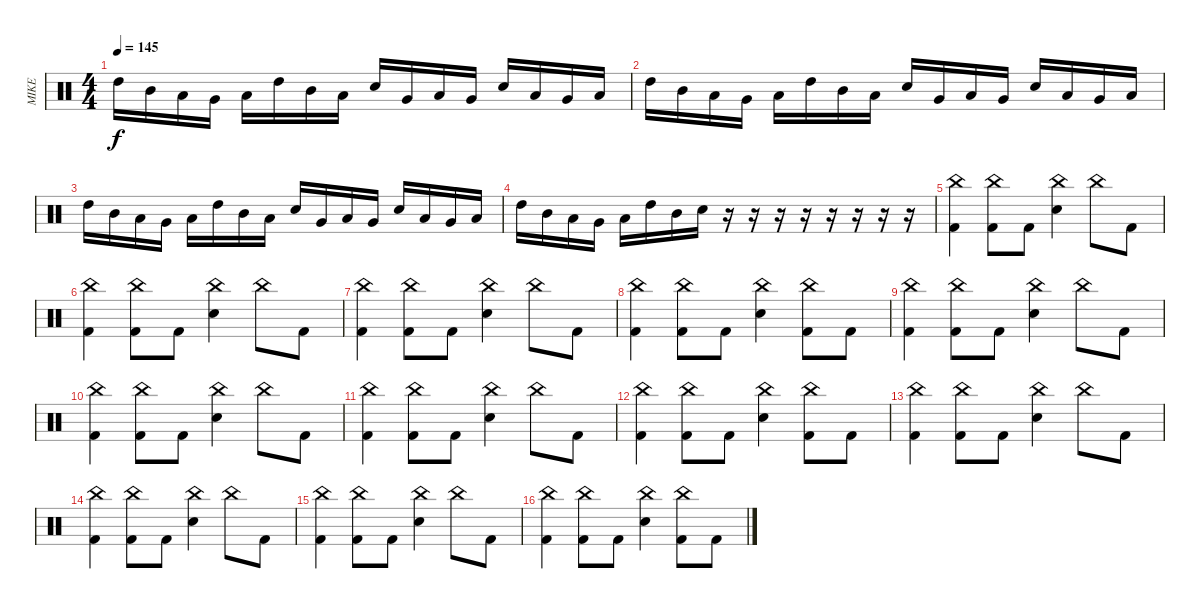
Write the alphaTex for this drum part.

\track ("MIKE" "MIKE") {instrument percussion}
\staff {score}
\articulation defaults
\ts (4 4)
\tempo 145
\clef neutral
\ks c "High Tom (hit)".16{dy f} "Mid Tom (hit)".16 "Low Tom (hit)".16 "Very Low Tom (hit)".16 "Low Floor Tom (hit)".16 "High Tom (hit)".16 "Mid Tom (hit)".16 "Low Tom (hit)".16 "Electric Snare (hit)".16 "Very Low Tom (hit)".16 "Low Tom (hit)".16 "Very Low Tom (hit)".16 "Electric Snare (hit)".16 "Low Tom (hit)".16 "Very Low Tom (hit)".16 "Low Floor Tom (hit)".16
|
"High Tom (hit)".16 "Mid Tom (hit)".16 "Low Tom (hit)".16 "Very Low Tom (hit)".16 "Low Floor Tom (hit)".16 "High Tom (hit)".16 "Mid Tom (hit)".16 "Low Tom (hit)".16 "Electric Snare (hit)".16 "Very Low Tom (hit)".16 "Low Tom (hit)".16 "Very Low Tom (hit)".16 "Electric Snare (hit)".16 "Low Tom (hit)".16 "Very Low Tom (hit)".16 "Low Floor Tom (hit)".16 |
"High Tom (hit)".16 "Mid Tom (hit)".16 "Low Tom (hit)".16 "Very Low Tom (hit)".16 "Low Floor Tom (hit)".16 "High Tom (hit)".16 "Mid Tom (hit)".16 "Low Tom (hit)".16 "Electric Snare (hit)".16 "Very Low Tom (hit)".16 "Low Tom (hit)".16 "Very Low Tom (hit)".16 "Electric Snare (hit)".16 "Low Tom (hit)".16 "Very Low Tom (hit)".16 "Low Floor Tom (hit)".16 |
"High Tom (hit)".16 "Mid Tom (hit)".16 "Low Tom (hit)".16 "Very Low Tom (hit)".16 "Low Floor Tom (hit)".16 "High Tom (hit)".16 "Mid Tom (hit)".16 "Electric Snare (hit)".16 r.16 r.16 r.16 r.16 r.16 r.16 r.16 r.16 |
("China (hit)" "Kick (hit) 2").4 ("China (hit)" "Kick (hit) 2").8 "Kick (hit) 2".8 ("China (hit)" "Electric Snare (hit)").4 "China (hit)".8 "Kick (hit) 2".8 |
("China (hit)" "Kick (hit) 2").4 ("China (hit)" "Kick (hit) 2").8 "Kick (hit) 2".8 ("China (hit)" "Electric Snare (hit)").4 "China (hit)".8 "Kick (hit) 2".8 |
("China (hit)" "Kick (hit) 2").4 ("China (hit)" "Kick (hit) 2").8 "Kick (hit) 2".8 ("China (hit)" "Electric Snare (hit)").4 "China (hit)".8 "Kick (hit) 2".8 |
("China (hit)" "Kick (hit) 2").4 ("China (hit)" "Kick (hit) 2").8 "Kick (hit) 2".8 ("China (hit)" "Electric Snare (hit)").4 ("Kick (hit) 2" "China (hit)").8 "Kick (hit) 2".8 |
("China (hit)" "Kick (hit) 2").4 ("China (hit)" "Kick (hit) 2").8 "Kick (hit) 2".8 ("China (hit)" "Electric Snare (hit)").4 "China (hit)".8 "Kick (hit) 2".8 |
("China (hit)" "Kick (hit) 2").4 ("China (hit)" "Kick (hit) 2").8 "Kick (hit) 2".8 ("China (hit)" "Electric Snare (hit)").4 "China (hit)".8 "Kick (hit) 2".8 |
("China (hit)" "Kick (hit) 2").4 ("China (hit)" "Kick (hit) 2").8 "Kick (hit) 2".8 ("China (hit)" "Electric Snare (hit)").4 "China (hit)".8 "Kick (hit) 2".8 |
("China (hit)" "Kick (hit) 2").4 ("China (hit)" "Kick (hit) 2").8 "Kick (hit) 2".8 ("China (hit)" "Electric Snare (hit)").4 ("Kick (hit) 2" "China (hit)").8 "Kick (hit) 2".8 |
("China (hit)" "Kick (hit) 2").4 ("China (hit)" "Kick (hit) 2").8 "Kick (hit) 2".8 ("China (hit)" "Electric Snare (hit)").4 "China (hit)".8 "Kick (hit) 2".8 |
("China (hit)" "Kick (hit) 2").4 ("China (hit)" "Kick (hit) 2").8 "Kick (hit) 2".8 ("China (hit)" "Electric Snare (hit)").4 "China (hit)".8 "Kick (hit) 2".8 |
("China (hit)" "Kick (hit) 2").4 ("China (hit)" "Kick (hit) 2").8 "Kick (hit) 2".8 ("China (hit)" "Electric Snare (hit)").4 "China (hit)".8 "Kick (hit) 2".8 |
("China (hit)" "Kick (hit) 2").4 ("China (hit)" "Kick (hit) 2").8 "Kick (hit) 2".8 ("China (hit)" "Electric Snare (hit)").4 ("Kick (hit) 2" "China (hit)").8 "Kick (hit) 2".8
